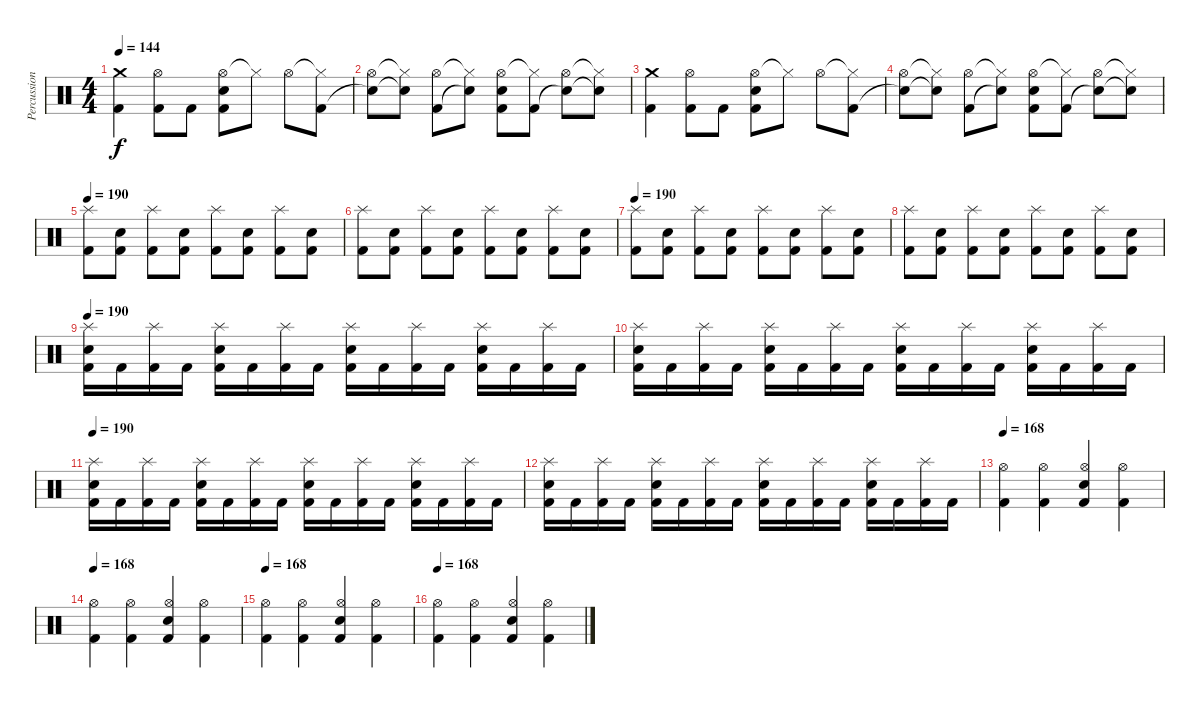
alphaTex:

\track ("Percussion" "Percussion") {instrument percussion}
\staff {score}
\articulation defaults
\ts (4 4)
\tempo 144
\clef neutral
\ks c
("Crash medium (hit)" "Kick (hit) 2").4{dy f} ("Hi-Hat (open)" "Kick (hit) 2").8 "Kick (hit) 2".8 ("Hi-Hat (open)" "Electric Snare (hit)" "Kick (hit) 2").8 "Hi-Hat (closed)"{t}.8 "Hi-Hat (open)".8 ("Hi-Hat (closed)"{t} "Kick (hit) 2").8 |
("Hi-Hat (open)" "Snare (hit)"{t}).8 ("Hi-Hat (closed)"{t} "Snare (hit)"{t}).8 ("Hi-Hat (open)" "Kick (hit) 2").8 ("Hi-Hat (closed)"{t} "Snare (hit)"{t}).8 ("Hi-Hat (open)" "Electric Snare (hit)" "Kick (hit) 2").8 ("Hi-Hat (closed)"{t} "Kick (hit) 2").8 ("Hi-Hat (open)" "Snare (hit)"{t}).8 ("Hi-Hat (closed)"{t} "Snare (hit)"{t}).8 |
("Crash medium (hit)" "Kick (hit) 2").4 ("Hi-Hat (open)" "Kick (hit) 2").8 "Kick (hit) 2".8 ("Hi-Hat (open)" "Electric Snare (hit)" "Kick (hit) 2").8 "Hi-Hat (closed)"{t}.8 "Hi-Hat (open)".8 ("Hi-Hat (closed)"{t} "Kick (hit) 2").8 |
("Hi-Hat (open)" "Snare (hit)"{t}).8 ("Hi-Hat (closed)"{t} "Snare (hit)"{t}).8 ("Hi-Hat (open)" "Kick (hit) 2").8 ("Hi-Hat (closed)"{t} "Snare (hit)"{t}).8 ("Hi-Hat (open)" "Electric Snare (hit)" "Kick (hit) 2").8 ("Hi-Hat (closed)"{t} "Kick (hit) 2").8 ("Hi-Hat (open)" "Snare (hit)"{t}).8 ("Hi-Hat (closed)"{t} "Snare (hit)"{t}).8 |
\tempo 190
("Splash (hit)" "Kick (hit) 2").8 ("Electric Snare (hit)" "Kick (hit) 2").8 ("Splash (hit)" "Kick (hit) 2").8 ("Electric Snare (hit)" "Kick (hit) 2").8 ("Splash (hit)" "Kick (hit) 2").8 ("Electric Snare (hit)" "Kick (hit) 2").8 ("Splash (hit)" "Kick (hit) 2").8 ("Electric Snare (hit)" "Kick (hit) 2").8 |
("Splash (hit)" "Kick (hit) 2").8 ("Electric Snare (hit)" "Kick (hit) 2").8 ("Splash (hit)" "Kick (hit) 2").8 ("Electric Snare (hit)" "Kick (hit) 2").8 ("Splash (hit)" "Kick (hit) 2").8 ("Electric Snare (hit)" "Kick (hit) 2").8 ("Splash (hit)" "Kick (hit) 2").8 ("Electric Snare (hit)" "Kick (hit) 2").8 |
\tempo 190
("Splash (hit)" "Kick (hit) 2").8 ("Electric Snare (hit)" "Kick (hit) 2").8 ("Splash (hit)" "Kick (hit) 2").8 ("Electric Snare (hit)" "Kick (hit) 2").8 ("Splash (hit)" "Kick (hit) 2").8 ("Electric Snare (hit)" "Kick (hit) 2").8 ("Splash (hit)" "Kick (hit) 2").8 ("Electric Snare (hit)" "Kick (hit) 2").8 |
("Splash (hit)" "Kick (hit) 2").8 ("Electric Snare (hit)" "Kick (hit) 2").8 ("Splash (hit)" "Kick (hit) 2").8 ("Electric Snare (hit)" "Kick (hit) 2").8 ("Splash (hit)" "Kick (hit) 2").8 ("Electric Snare (hit)" "Kick (hit) 2").8 ("Splash (hit)" "Kick (hit) 2").8 ("Electric Snare (hit)" "Kick (hit) 2").8 |
\tempo 190
("Splash (hit)" "Electric Snare (hit)" "Kick (hit) 2").16 "Kick (hit) 2".16 ("Splash (hit)" "Kick (hit) 2").16 "Kick (hit) 2".16 ("Splash (hit)" "Electric Snare (hit)" "Kick (hit) 2").16 "Kick (hit) 2".16 ("Splash (hit)" "Kick (hit) 2").16 "Kick (hit) 2".16 ("Splash (hit)" "Electric Snare (hit)" "Kick (hit) 2").16 "Kick (hit) 2".16 ("Splash (hit)" "Kick (hit) 2").16 "Kick (hit) 2".16 ("Splash (hit)" "Electric Snare (hit)" "Kick (hit) 2").16 "Kick (hit) 2".16 ("Splash (hit)" "Kick (hit) 2").16 "Kick (hit) 2".16 |
("Splash (hit)" "Electric Snare (hit)" "Kick (hit) 2").16 "Kick (hit) 2".16 ("Splash (hit)" "Kick (hit) 2").16 "Kick (hit) 2".16 ("Splash (hit)" "Electric Snare (hit)" "Kick (hit) 2").16 "Kick (hit) 2".16 ("Splash (hit)" "Kick (hit) 2").16 "Kick (hit) 2".16 ("Splash (hit)" "Electric Snare (hit)" "Kick (hit) 2").16 "Kick (hit) 2".16 ("Splash (hit)" "Kick (hit) 2").16 "Kick (hit) 2".16 ("Splash (hit)" "Electric Snare (hit)" "Kick (hit) 2").16 "Kick (hit) 2".16 ("Splash (hit)" "Kick (hit) 2").16 "Kick (hit) 2".16 |
\tempo 190
("Splash (hit)" "Electric Snare (hit)" "Kick (hit) 2").16 "Kick (hit) 2".16 ("Splash (hit)" "Kick (hit) 2").16 "Kick (hit) 2".16 ("Splash (hit)" "Electric Snare (hit)" "Kick (hit) 2").16 "Kick (hit) 2".16 ("Splash (hit)" "Kick (hit) 2").16 "Kick (hit) 2".16 ("Splash (hit)" "Electric Snare (hit)" "Kick (hit) 2").16 "Kick (hit) 2".16 ("Splash (hit)" "Kick (hit) 2").16 "Kick (hit) 2".16 ("Splash (hit)" "Electric Snare (hit)" "Kick (hit) 2").16 "Kick (hit) 2".16 ("Splash (hit)" "Kick (hit) 2").16 "Kick (hit) 2".16 |
("Splash (hit)" "Electric Snare (hit)" "Kick (hit) 2").16 "Kick (hit) 2".16 ("Splash (hit)" "Kick (hit) 2").16 "Kick (hit) 2".16 ("Splash (hit)" "Electric Snare (hit)" "Kick (hit) 2").16 "Kick (hit) 2".16 ("Splash (hit)" "Kick (hit) 2").16 "Kick (hit) 2".16 ("Splash (hit)" "Electric Snare (hit)" "Kick (hit) 2").16 "Kick (hit) 2".16 ("Splash (hit)" "Kick (hit) 2").16 "Kick (hit) 2".16 ("Splash (hit)" "Electric Snare (hit)" "Kick (hit) 2").16 "Kick (hit) 2".16 ("Splash (hit)" "Kick (hit) 2").16 "Kick (hit) 2".16 |
\tempo 168
("Hi-Hat (open)" "Kick (hit) 2").4 ("Hi-Hat (open)" "Kick (hit) 2").4 ("Hi-Hat (open)" "Electric Snare (hit)" "Kick (hit) 2").4 ("Hi-Hat (open)" "Kick (hit) 2").4 |
\tempo 168
("Hi-Hat (open)" "Kick (hit) 2").4 ("Hi-Hat (open)" "Kick (hit) 2").4 ("Hi-Hat (open)" "Electric Snare (hit)" "Kick (hit) 2").4 ("Hi-Hat (open)" "Kick (hit) 2").4 |
\tempo 168
("Hi-Hat (open)" "Kick (hit) 2").4 ("Hi-Hat (open)" "Kick (hit) 2").4 ("Hi-Hat (open)" "Electric Snare (hit)" "Kick (hit) 2").4 ("Hi-Hat (open)" "Kick (hit) 2").4 |
\tempo 168
("Hi-Hat (open)" "Kick (hit) 2").4 ("Hi-Hat (open)" "Kick (hit) 2").4 ("Hi-Hat (open)" "Electric Snare (hit)" "Kick (hit) 2").4 ("Hi-Hat (open)" "Kick (hit) 2").4
